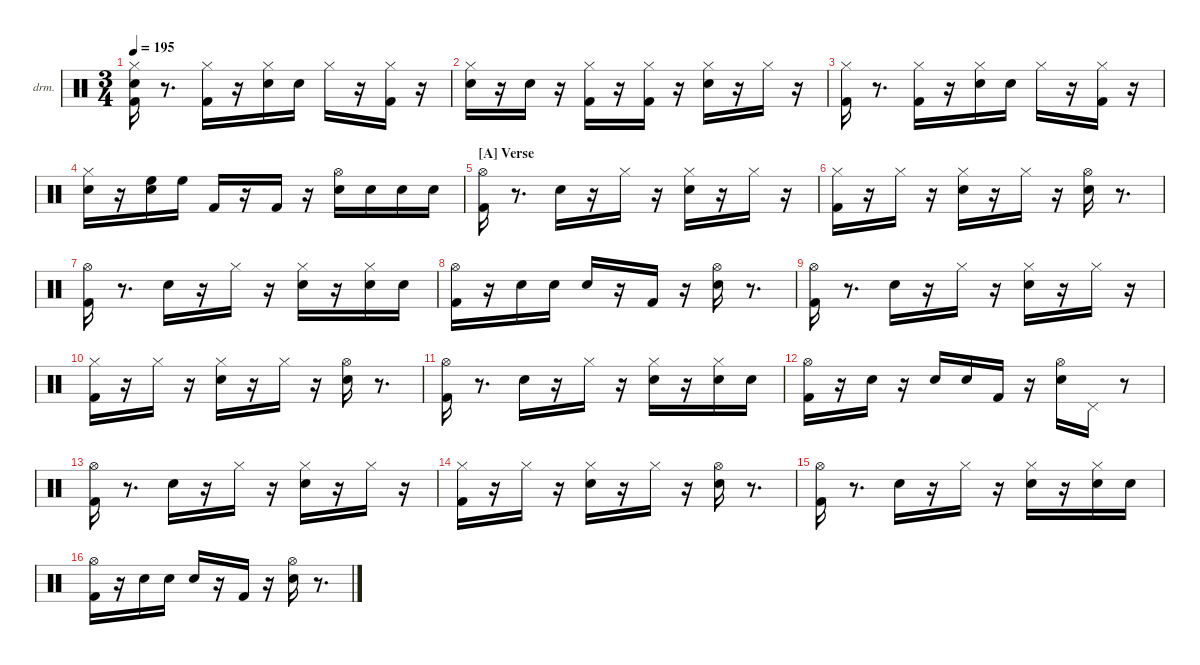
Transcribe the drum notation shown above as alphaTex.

\hideDynamics
\bracketExtendMode nobrackets
\firstSystemTrackNameOrientation horizontal
\track ("Drums" "drm.") {instrument percussion}
\staff {score}
\articulation defaults
\ts (3 4)
\tempo 195
\clef neutral
\ks aminor
("Hi-Hat (closed)"{acc #} "Kick (hit) 2" "Snare (hit) 2").16{dy p} r.8{d} ("Kick (hit) 2" "Hi-Hat (closed)"{acc #}).16{dy mf} r.16 ("Snare (hit) 2" "Hi-Hat (closed)"{acc #}).16{dy f} "Snare (hit) 2".16{dy pp} "Hi-Hat (closed)"{acc #}.16{dy ppp} r.16 ("Kick (hit) 2" "Hi-Hat (closed)"{acc #}).16{dy f} r.16 |
("Snare (hit) 2" "Hi-Hat (closed)"{acc #}).16{dy ff} r.16 "Snare (hit) 2".16{dy ppp} r.16 ("Kick (hit) 2" "Hi-Hat (closed)"{acc #}).16 r.16 ("Kick (hit) 2" "Hi-Hat (closed)"{acc #}).16 r.16 ("Snare (hit) 2" "Hi-Hat (closed)"{acc #}).16{dy fff} r.16 "Hi-Hat (closed)"{acc #}.16{dy ppp} r.16 |
("Kick (hit) 2" "Hi-Hat (closed)"{acc #}).16{dy ff} r.8{d} ("Kick (hit) 2" "Hi-Hat (closed)"{acc #}).16{dy mp} r.16 ("Snare (hit) 2" "Hi-Hat (closed)"{acc #}).16{dy f} "Snare (hit) 2".16{dy pp} "Hi-Hat (closed)"{acc #}.16{dy ppp} r.16 ("Kick (hit) 2" "Hi-Hat (closed)"{acc #}).16{dy f} r.16 |
("Snare (hit) 2" "Hi-Hat (closed)"{acc #}).16{dy ff} r.16 ("Snare (hit) 2" "High Floor Tom (hit)").16{dy ppp} "High Floor Tom (hit)".16{dy mf} "Kick (hit) 2".16 r.16 "Kick (hit) 2".16{dy ff} r.16 ("Snare (hit) 2" "Hi-Hat (open)"{acc #}).16 "Snare (hit) 2".16{dy pp} "Snare (hit) 2".16{dy ppp} "Snare (hit) 2".16 |
\section ("A" "Verse")
("Kick (hit) 2" "Hi-Hat (open)"{acc #}).16{dy fff} r.8{d} "Snare (hit) 2".16{dy ff} r.16 "Hi-Hat (closed)"{acc #}.16{dy ppp} r.16 ("Snare (hit) 2" "Hi-Hat (closed)"{acc #}).16{dy f} r.16 "Hi-Hat (closed)"{acc #}.16{dy pp} r.16 |
("Kick (hit) 2" "Hi-Hat (closed)"{acc #}).16{dy fff} r.16 "Hi-Hat (closed)"{acc #}.16{dy ppp} r.16 ("Snare (hit) 2" "Hi-Hat (closed)"{acc #}).16{dy f} r.16 "Hi-Hat (closed)"{acc #}.16{dy ppp} r.16 ("Snare (hit) 2" "Hi-Hat (open)"{acc #}).16{dy ff} r.8{d} |
("Kick (hit) 2" "Hi-Hat (open)"{acc #}).16{dy fff} r.8{d} "Snare (hit) 2".16{dy f} r.16 "Hi-Hat (closed)"{acc #}.16{dy ppp} r.16 ("Snare (hit) 2" "Hi-Hat (closed)"{acc #}).16{dy mf} r.16 ("Snare (hit) 2" "Hi-Hat (closed)"{acc #}).16{dy pp} "Snare (hit) 2".16 |
("Kick (hit) 2" "Hi-Hat (open)"{acc #}).16{dy fff} r.16 "Snare (hit) 2".16{dy mf} "Snare (hit) 2".16{dy p} "Snare (hit) 2".16{dy fff} r.16 "Kick (hit) 2".16{dy f} r.16 ("Snare (hit) 2" "Hi-Hat (open)"{acc #}).16{dy fff} r.8{d} |
("Kick (hit) 2" "Hi-Hat (open)"{acc #}).16{dy ff} r.8{d} "Snare (hit) 2".16 r.16 "Hi-Hat (closed)"{acc #}.16{dy ppp} r.16 ("Snare (hit) 2" "Hi-Hat (closed)"{acc #}).16{dy f} r.16 "Hi-Hat (closed)"{acc #}.16{dy pp} r.16 |
("Kick (hit) 2" "Hi-Hat (closed)"{acc #}).16{dy fff} r.16 "Hi-Hat (closed)"{acc #}.16{dy ppp} r.16 ("Snare (hit) 2" "Hi-Hat (closed)"{acc #}).16{dy f} r.16 "Hi-Hat (closed)"{acc #}.16{dy ppp} r.16 ("Snare (hit) 2" "Hi-Hat (open)"{acc #}).16{dy f} r.8{d} |
("Kick (hit) 2" "Hi-Hat (open)"{acc #}).16{dy fff} r.8{d} "Snare (hit) 2".16{dy f} r.16 "Hi-Hat (closed)"{acc #}.16{dy ppp} r.16 ("Snare (hit) 2" "Hi-Hat (closed)"{acc #}).16{dy f} r.16 ("Snare (hit) 2" "Hi-Hat (closed)"{acc #}).16{dy mp} "Snare (hit) 2".16{dy pp} |
("Kick (hit) 2" "Hi-Hat (open)"{acc #}).16{dy f} r.16 "Snare (hit) 2".16{dy ff} r.16 "Snare (hit) 2".16{dy mp} "Snare (hit) 2".16{dy ppp} "Kick (hit) 2".16{dy mf} r.16 ("Snare (hit) 2" "Hi-Hat (open)"{acc #}).16{dy fff} "Pedal Hi-Hat (hit)"{acc #}.16{dy ppp} r.8 |
("Kick (hit) 2" "Hi-Hat (open)"{acc #}).16{dy ff} r.8{d} "Snare (hit) 2".16 r.16 "Hi-Hat (closed)"{acc #}.16{dy ppp} r.16 ("Snare (hit) 2" "Hi-Hat (closed)"{acc #}).16{dy f} r.16 "Hi-Hat (closed)"{acc #}.16{dy pp} r.16 |
("Kick (hit) 2" "Hi-Hat (closed)"{acc #}).16{dy fff} r.16 "Hi-Hat (closed)"{acc #}.16{dy ppp} r.16 ("Snare (hit) 2" "Hi-Hat (closed)"{acc #}).16{dy f} r.16 "Hi-Hat (closed)"{acc #}.16{dy ppp} r.16 ("Snare (hit) 2" "Hi-Hat (open)"{acc #}).16{dy f} r.8{d} |
("Kick (hit) 2" "Hi-Hat (open)"{acc #}).16{dy fff} r.8{d} "Snare (hit) 2".16{dy f} r.16 "Hi-Hat (closed)"{acc #}.16{dy ppp} r.16 ("Snare (hit) 2" "Hi-Hat (closed)"{acc #}).16{dy f} r.16 ("Snare (hit) 2" "Hi-Hat (closed)"{acc #}).16{dy mp} "Snare (hit) 2".16{dy pp} |
("Kick (hit) 2" "Hi-Hat (open)"{acc #}).16{dy fff} r.16 "Snare (hit) 2".16{dy mf} "Snare (hit) 2".16{dy p} "Snare (hit) 2".16{dy fff} r.16 "Kick (hit) 2".16{dy f} r.16 ("Snare (hit) 2" "Hi-Hat (open)"{acc #}).16 r.8{d}
